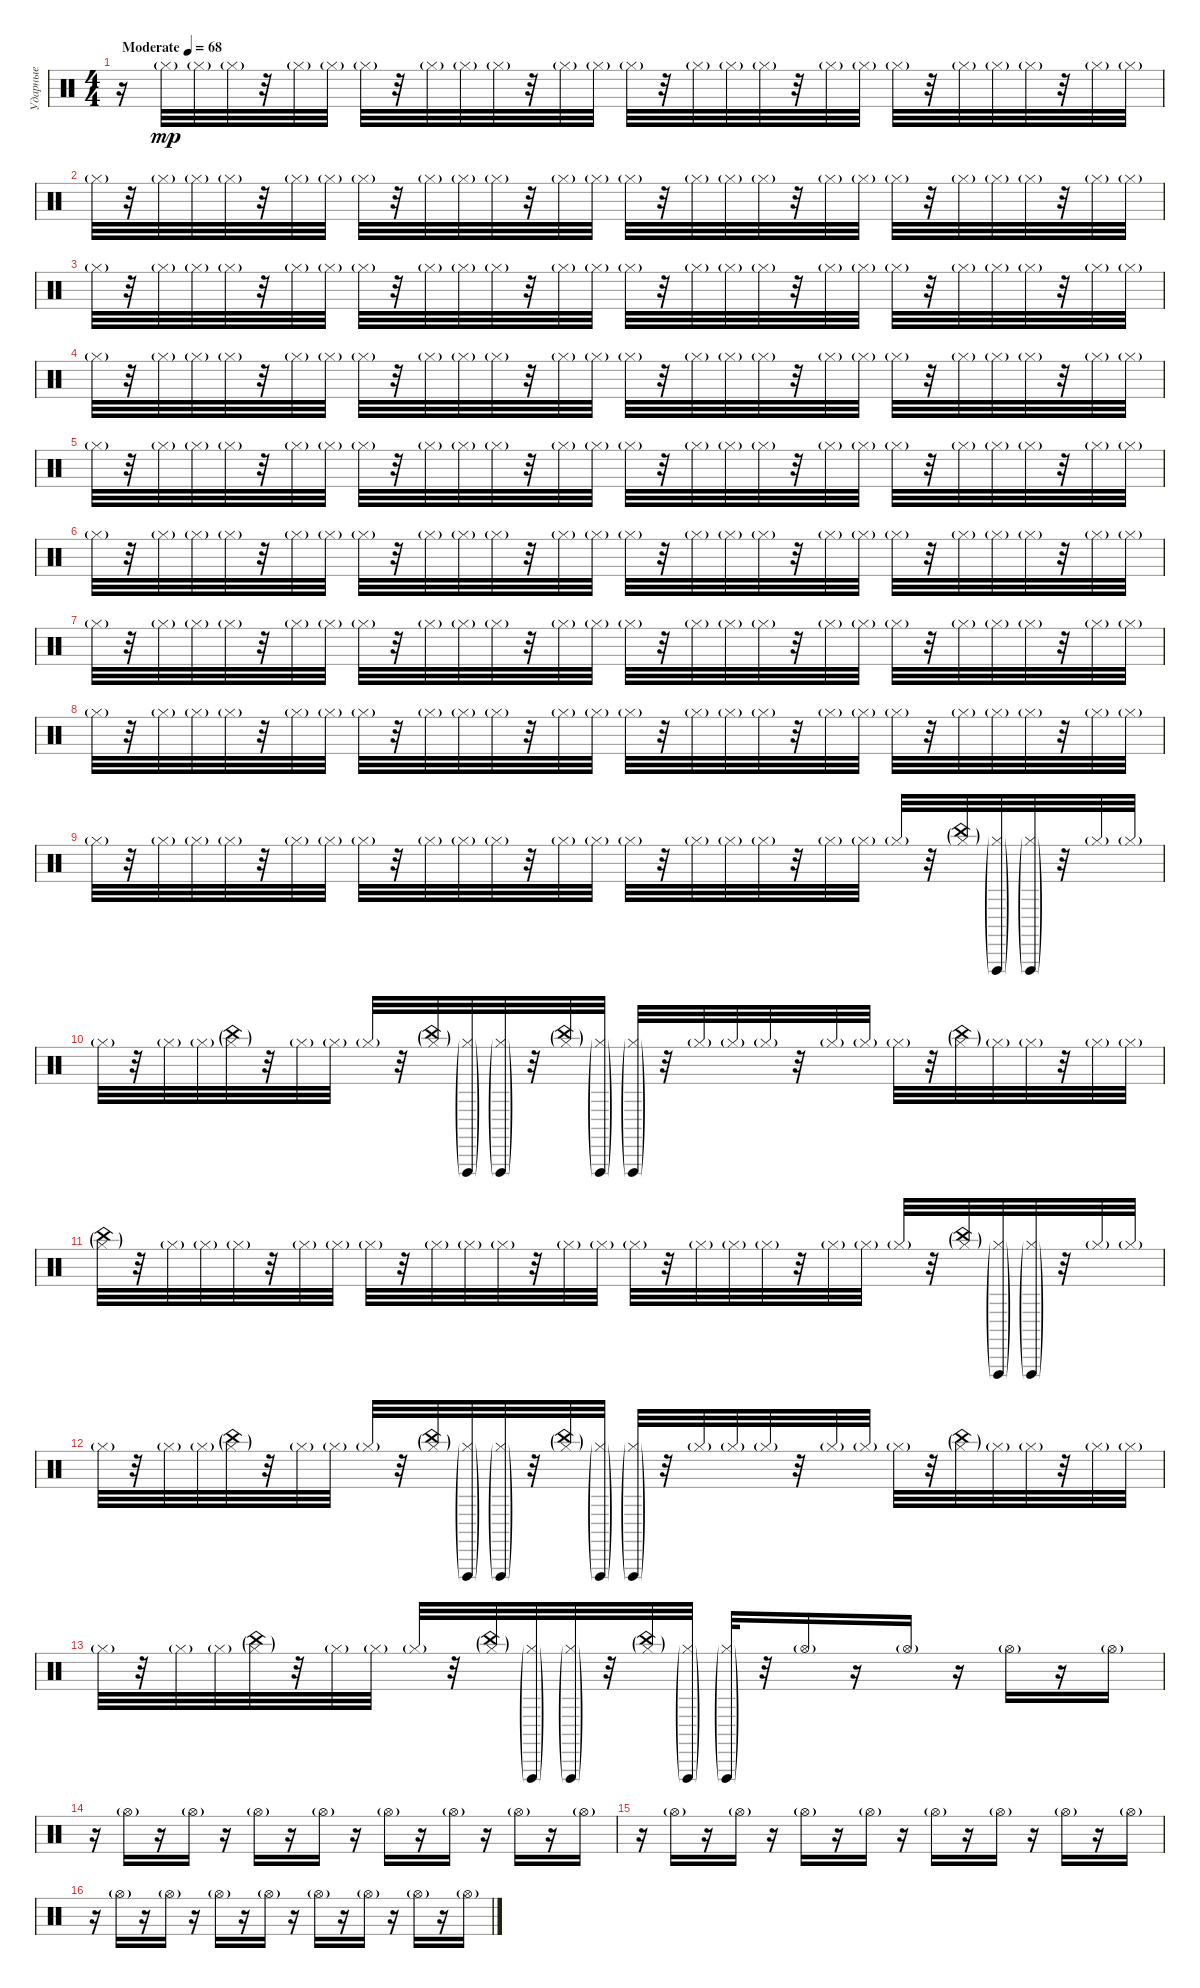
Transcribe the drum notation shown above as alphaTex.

\track ("Ударные" "Ударные") {instrument percussion}
\staff {score}
\articulation defaults
\ts (4 4)
\tempo (68 "Moderate")
\clef neutral
\ks c
r.16{dy mp} "Hi-Hat (closed)"{g}.32 "Hi-Hat (closed)"{g}.32 "Hi-Hat (closed)"{g}.32 r.32 "Hi-Hat (closed)"{g}.32 "Hi-Hat (closed)"{g}.32 "Hi-Hat (closed)"{g}.32 r.32 "Hi-Hat (closed)"{g}.32 "Hi-Hat (closed)"{g}.32 "Hi-Hat (closed)"{g}.32 r.32 "Hi-Hat (closed)"{g}.32 "Hi-Hat (closed)"{g}.32 "Hi-Hat (closed)"{g}.32 r.32 "Hi-Hat (closed)"{g}.32 "Hi-Hat (closed)"{g}.32 "Hi-Hat (closed)"{g}.32 r.32 "Hi-Hat (closed)"{g}.32 "Hi-Hat (closed)"{g}.32 "Hi-Hat (closed)"{g}.32 r.32 "Hi-Hat (closed)"{g}.32 "Hi-Hat (closed)"{g}.32 "Hi-Hat (closed)"{g}.32 r.32 "Hi-Hat (closed)"{g}.32 "Hi-Hat (closed)"{g}.32 |
"Hi-Hat (closed)"{g}.32 r.32 "Hi-Hat (closed)"{g}.32 "Hi-Hat (closed)"{g}.32 "Hi-Hat (closed)"{g}.32 r.32 "Hi-Hat (closed)"{g}.32 "Hi-Hat (closed)"{g}.32 "Hi-Hat (closed)"{g}.32 r.32 "Hi-Hat (closed)"{g}.32 "Hi-Hat (closed)"{g}.32 "Hi-Hat (closed)"{g}.32 r.32 "Hi-Hat (closed)"{g}.32 "Hi-Hat (closed)"{g}.32 "Hi-Hat (closed)"{g}.32 r.32 "Hi-Hat (closed)"{g}.32 "Hi-Hat (closed)"{g}.32 "Hi-Hat (closed)"{g}.32 r.32 "Hi-Hat (closed)"{g}.32 "Hi-Hat (closed)"{g}.32 "Hi-Hat (closed)"{g}.32 r.32 "Hi-Hat (closed)"{g}.32 "Hi-Hat (closed)"{g}.32 "Hi-Hat (closed)"{g}.32 r.32 "Hi-Hat (closed)"{g}.32 "Hi-Hat (closed)"{g}.32 |
"Hi-Hat (closed)"{g}.32 r.32 "Hi-Hat (closed)"{g}.32 "Hi-Hat (closed)"{g}.32 "Hi-Hat (closed)"{g}.32 r.32 "Hi-Hat (closed)"{g}.32 "Hi-Hat (closed)"{g}.32 "Hi-Hat (closed)"{g}.32 r.32 "Hi-Hat (closed)"{g}.32 "Hi-Hat (closed)"{g}.32 "Hi-Hat (closed)"{g}.32 r.32 "Hi-Hat (closed)"{g}.32 "Hi-Hat (closed)"{g}.32 "Hi-Hat (closed)"{g}.32 r.32 "Hi-Hat (closed)"{g}.32 "Hi-Hat (closed)"{g}.32 "Hi-Hat (closed)"{g}.32 r.32 "Hi-Hat (closed)"{g}.32 "Hi-Hat (closed)"{g}.32 "Hi-Hat (closed)"{g}.32 r.32 "Hi-Hat (closed)"{g}.32 "Hi-Hat (closed)"{g}.32 "Hi-Hat (closed)"{g}.32 r.32 "Hi-Hat (closed)"{g}.32 "Hi-Hat (closed)"{g}.32 |
"Hi-Hat (closed)"{g}.32 r.32 "Hi-Hat (closed)"{g}.32 "Hi-Hat (closed)"{g}.32 "Hi-Hat (closed)"{g}.32 r.32 "Hi-Hat (closed)"{g}.32 "Hi-Hat (closed)"{g}.32 "Hi-Hat (closed)"{g}.32 r.32 "Hi-Hat (closed)"{g}.32 "Hi-Hat (closed)"{g}.32 "Hi-Hat (closed)"{g}.32 r.32 "Hi-Hat (closed)"{g}.32 "Hi-Hat (closed)"{g}.32 "Hi-Hat (closed)"{g}.32 r.32 "Hi-Hat (closed)"{g}.32 "Hi-Hat (closed)"{g}.32 "Hi-Hat (closed)"{g}.32 r.32 "Hi-Hat (closed)"{g}.32 "Hi-Hat (closed)"{g}.32 "Hi-Hat (closed)"{g}.32 r.32 "Hi-Hat (closed)"{g}.32 "Hi-Hat (closed)"{g}.32 "Hi-Hat (closed)"{g}.32 r.32 "Hi-Hat (closed)"{g}.32 "Hi-Hat (closed)"{g}.32 |
"Hi-Hat (closed)"{g}.32 r.32 "Hi-Hat (closed)"{g}.32 "Hi-Hat (closed)"{g}.32 "Hi-Hat (closed)"{g}.32 r.32 "Hi-Hat (closed)"{g}.32 "Hi-Hat (closed)"{g}.32 "Hi-Hat (closed)"{g}.32 r.32 "Hi-Hat (closed)"{g}.32 "Hi-Hat (closed)"{g}.32 "Hi-Hat (closed)"{g}.32 r.32 "Hi-Hat (closed)"{g}.32 "Hi-Hat (closed)"{g}.32 "Hi-Hat (closed)"{g}.32 r.32 "Hi-Hat (closed)"{g}.32 "Hi-Hat (closed)"{g}.32 "Hi-Hat (closed)"{g}.32 r.32 "Hi-Hat (closed)"{g}.32 "Hi-Hat (closed)"{g}.32 "Hi-Hat (closed)"{g}.32 r.32 "Hi-Hat (closed)"{g}.32 "Hi-Hat (closed)"{g}.32 "Hi-Hat (closed)"{g}.32 r.32 "Hi-Hat (closed)"{g}.32 "Hi-Hat (closed)"{g}.32 |
"Hi-Hat (closed)"{g}.32 r.32 "Hi-Hat (closed)"{g}.32 "Hi-Hat (closed)"{g}.32 "Hi-Hat (closed)"{g}.32 r.32 "Hi-Hat (closed)"{g}.32 "Hi-Hat (closed)"{g}.32 "Hi-Hat (closed)"{g}.32 r.32 "Hi-Hat (closed)"{g}.32 "Hi-Hat (closed)"{g}.32 "Hi-Hat (closed)"{g}.32 r.32 "Hi-Hat (closed)"{g}.32 "Hi-Hat (closed)"{g}.32 "Hi-Hat (closed)"{g}.32 r.32 "Hi-Hat (closed)"{g}.32 "Hi-Hat (closed)"{g}.32 "Hi-Hat (closed)"{g}.32 r.32 "Hi-Hat (closed)"{g}.32 "Hi-Hat (closed)"{g}.32 "Hi-Hat (closed)"{g}.32 r.32 "Hi-Hat (closed)"{g}.32 "Hi-Hat (closed)"{g}.32 "Hi-Hat (closed)"{g}.32 r.32 "Hi-Hat (closed)"{g}.32 "Hi-Hat (closed)"{g}.32 |
"Hi-Hat (closed)"{g}.32 r.32 "Hi-Hat (closed)"{g}.32 "Hi-Hat (closed)"{g}.32 "Hi-Hat (closed)"{g}.32 r.32 "Hi-Hat (closed)"{g}.32 "Hi-Hat (closed)"{g}.32 "Hi-Hat (closed)"{g}.32 r.32 "Hi-Hat (closed)"{g}.32 "Hi-Hat (closed)"{g}.32 "Hi-Hat (closed)"{g}.32 r.32 "Hi-Hat (closed)"{g}.32 "Hi-Hat (closed)"{g}.32 "Hi-Hat (closed)"{g}.32 r.32 "Hi-Hat (closed)"{g}.32 "Hi-Hat (closed)"{g}.32 "Hi-Hat (closed)"{g}.32 r.32 "Hi-Hat (closed)"{g}.32 "Hi-Hat (closed)"{g}.32 "Hi-Hat (closed)"{g}.32 r.32 "Hi-Hat (closed)"{g}.32 "Hi-Hat (closed)"{g}.32 "Hi-Hat (closed)"{g}.32 r.32 "Hi-Hat (closed)"{g}.32 "Hi-Hat (closed)"{g}.32 |
"Hi-Hat (closed)"{g}.32 r.32 "Hi-Hat (closed)"{g}.32 "Hi-Hat (closed)"{g}.32 "Hi-Hat (closed)"{g}.32 r.32 "Hi-Hat (closed)"{g}.32 "Hi-Hat (closed)"{g}.32 "Hi-Hat (closed)"{g}.32 r.32 "Hi-Hat (closed)"{g}.32 "Hi-Hat (closed)"{g}.32 "Hi-Hat (closed)"{g}.32 r.32 "Hi-Hat (closed)"{g}.32 "Hi-Hat (closed)"{g}.32 "Hi-Hat (closed)"{g}.32 r.32 "Hi-Hat (closed)"{g}.32 "Hi-Hat (closed)"{g}.32 "Hi-Hat (closed)"{g}.32 r.32 "Hi-Hat (closed)"{g}.32 "Hi-Hat (closed)"{g}.32 "Hi-Hat (closed)"{g}.32 r.32 "Hi-Hat (closed)"{g}.32 "Hi-Hat (closed)"{g}.32 "Hi-Hat (closed)"{g}.32 r.32 "Hi-Hat (closed)"{g}.32 "Hi-Hat (closed)"{g}.32 |
"Hi-Hat (closed)"{g}.32 r.32 "Hi-Hat (closed)"{g}.32 "Hi-Hat (closed)"{g}.32 "Hi-Hat (closed)"{g}.32 r.32 "Hi-Hat (closed)"{g}.32 "Hi-Hat (closed)"{g}.32 "Hi-Hat (closed)"{g}.32 r.32 "Hi-Hat (closed)"{g}.32 "Hi-Hat (closed)"{g}.32 "Hi-Hat (closed)"{g}.32 r.32 "Hi-Hat (closed)"{g}.32 "Hi-Hat (closed)"{g}.32 "Hi-Hat (closed)"{g}.32 r.32 "Hi-Hat (closed)"{g}.32 "Hi-Hat (closed)"{g}.32 "Hi-Hat (closed)"{g}.32 r.32 "Hi-Hat (closed)"{g}.32 "Hi-Hat (closed)"{g}.32 "Hi-Hat (closed)"{g}.32 r.32 ("Hi-Hat (closed)"{g} "China (hit)"{g}).32 ("Hi-Hat (closed)"{g} "Vibraslap (hit)"{g}).32 ("Hi-Hat (closed)"{g} "Vibraslap (hit)"{g}).32 r.32 "Hi-Hat (closed)"{g}.32 "Hi-Hat (closed)"{g}.32 |
"Hi-Hat (closed)"{g}.32 r.32 "Hi-Hat (closed)"{g}.32 "Hi-Hat (closed)"{g}.32 ("Hi-Hat (closed)"{g} "China (hit)"{g}).32 r.32 "Hi-Hat (closed)"{g}.32 "Hi-Hat (closed)"{g}.32 "Hi-Hat (closed)"{g}.32 r.32 ("Hi-Hat (closed)"{g} "China (hit)"{g}).32 ("Hi-Hat (closed)"{g} "Vibraslap (hit)"{g}).32 ("Hi-Hat (closed)"{g} "Vibraslap (hit)"{g}).32 r.32 ("Hi-Hat (closed)"{g} "China (hit)"{g}).32 ("Hi-Hat (closed)"{g} "Vibraslap (hit)"{g}).32 ("Hi-Hat (closed)"{g} "Vibraslap (hit)"{g}).32 r.32 "Hi-Hat (closed)"{g}.32 "Hi-Hat (closed)"{g}.32 "Hi-Hat (closed)"{g}.32 r.32 "Hi-Hat (closed)"{g}.32 "Hi-Hat (closed)"{g}.32 "Hi-Hat (closed)"{g}.32 r.32 ("Hi-Hat (closed)"{g} "China (hit)"{g}).32 "Hi-Hat (closed)"{g}.32 "Hi-Hat (closed)"{g}.32 r.32 "Hi-Hat (closed)"{g}.32 "Hi-Hat (closed)"{g}.32 |
("Hi-Hat (closed)"{g} "China (hit)"{g}).32 r.32 "Hi-Hat (closed)"{g}.32 "Hi-Hat (closed)"{g}.32 "Hi-Hat (closed)"{g}.32 r.32 "Hi-Hat (closed)"{g}.32 "Hi-Hat (closed)"{g}.32 "Hi-Hat (closed)"{g}.32 r.32 "Hi-Hat (closed)"{g}.32 "Hi-Hat (closed)"{g}.32 "Hi-Hat (closed)"{g}.32 r.32 "Hi-Hat (closed)"{g}.32 "Hi-Hat (closed)"{g}.32 "Hi-Hat (closed)"{g}.32 r.32 "Hi-Hat (closed)"{g}.32 "Hi-Hat (closed)"{g}.32 "Hi-Hat (closed)"{g}.32 r.32 "Hi-Hat (closed)"{g}.32 "Hi-Hat (closed)"{g}.32 "Hi-Hat (closed)"{g}.32 r.32 ("Hi-Hat (closed)"{g} "China (hit)"{g}).32 ("Hi-Hat (closed)"{g} "Vibraslap (hit)"{g}).32 ("Hi-Hat (closed)"{g} "Vibraslap (hit)"{g}).32 r.32 "Hi-Hat (closed)"{g}.32 "Hi-Hat (closed)"{g}.32 |
"Hi-Hat (closed)"{g}.32 r.32 "Hi-Hat (closed)"{g}.32 "Hi-Hat (closed)"{g}.32 ("Hi-Hat (closed)"{g} "China (hit)"{g}).32 r.32 "Hi-Hat (closed)"{g}.32 "Hi-Hat (closed)"{g}.32 "Hi-Hat (closed)"{g}.32 r.32 ("Hi-Hat (closed)"{g} "China (hit)"{g}).32 ("Hi-Hat (closed)"{g} "Vibraslap (hit)"{g}).32 ("Hi-Hat (closed)"{g} "Vibraslap (hit)"{g}).32 r.32 ("Hi-Hat (closed)"{g} "China (hit)"{g}).32 ("Hi-Hat (closed)"{g} "Vibraslap (hit)"{g}).32 ("Hi-Hat (closed)"{g} "Vibraslap (hit)"{g}).32 r.32 "Hi-Hat (closed)"{g}.32 "Hi-Hat (closed)"{g}.32 "Hi-Hat (closed)"{g}.32 r.32 "Hi-Hat (closed)"{g}.32 "Hi-Hat (closed)"{g}.32 "Hi-Hat (closed)"{g}.32 r.32 ("Hi-Hat (closed)"{g} "China (hit)"{g}).32 "Hi-Hat (closed)"{g}.32 "Hi-Hat (closed)"{g}.32 r.32 "Hi-Hat (closed)"{g}.32 "Hi-Hat (closed)"{g}.32 |
"Hi-Hat (closed)"{g}.32 r.32 "Hi-Hat (closed)"{g}.32 "Hi-Hat (closed)"{g}.32 ("Hi-Hat (closed)"{g} "China (hit)"{g}).32 r.32 "Hi-Hat (closed)"{g}.32 "Hi-Hat (closed)"{g}.32 "Hi-Hat (closed)"{g}.32 r.32 ("Hi-Hat (closed)"{g} "China (hit)"{g}).32 ("Hi-Hat (closed)"{g} "Vibraslap (hit)"{g}).32 ("Hi-Hat (closed)"{g} "Vibraslap (hit)"{g}).32 r.32 ("Hi-Hat (closed)"{g} "China (hit)"{g}).32 ("Hi-Hat (closed)"{g} "Vibraslap (hit)"{g}).32 ("Hi-Hat (closed)"{g} "Vibraslap (hit)"{g}).32 r.32 "Hi-Hat (open)"{g}.16 r.16 "Hi-Hat (open)"{g}.16 r.16 "Hi-Hat (open)"{g}.16 r.16 "Hi-Hat (open)"{g}.16 |
r.16 "Hi-Hat (open)"{g}.16 r.16 "Hi-Hat (open)"{g}.16 r.16 "Hi-Hat (open)"{g}.16 r.16 "Hi-Hat (open)"{g}.16 r.16 "Hi-Hat (open)"{g}.16 r.16 "Hi-Hat (open)"{g}.16 r.16 "Hi-Hat (open)"{g}.16 r.16 "Hi-Hat (open)"{g}.16 |
r.16 "Hi-Hat (open)"{g}.16 r.16 "Hi-Hat (open)"{g}.16 r.16 "Hi-Hat (open)"{g}.16 r.16 "Hi-Hat (open)"{g}.16 r.16 "Hi-Hat (open)"{g}.16 r.16 "Hi-Hat (open)"{g}.16 r.16 "Hi-Hat (open)"{g}.16 r.16 "Hi-Hat (open)"{g}.16 |
r.16 "Hi-Hat (open)"{g}.16 r.16 "Hi-Hat (open)"{g}.16 r.16 "Hi-Hat (open)"{g}.16 r.16 "Hi-Hat (open)"{g}.16 r.16 "Hi-Hat (open)"{g}.16 r.16 "Hi-Hat (open)"{g}.16 r.16 "Hi-Hat (open)"{g}.16 r.16 "Hi-Hat (open)"{g}.16
